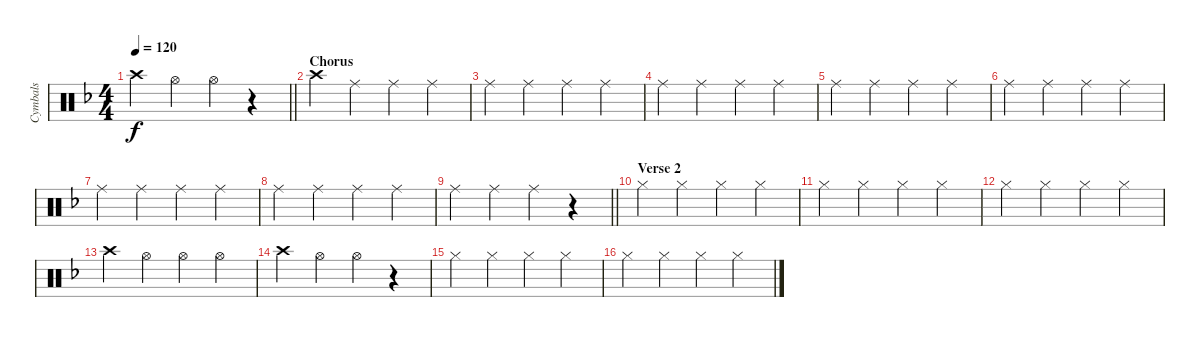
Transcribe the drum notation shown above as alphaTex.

\track ("Cymbals" "Cymbals") {instrument percussion}
\staff {score}
\articulation defaults
\ts (4 4)
\tempo 120
\clef neutral
\barLineRight lightlight
\ks f "Crash high (hit)".4{dy f} "Hi-Hat (open)".4 "Hi-Hat (open)".4
r.4 |
\section ("" "Chorus")
"Crash high (hit)".4 "Ride (middle)".4 "Ride (middle)".4 "Ride (middle)".4 |
"Ride (middle)".4 "Ride (middle)".4 "Ride (middle)".4 "Ride (middle)".4 |
"Ride (middle)".4 "Ride (middle)".4 "Ride (middle)".4 "Ride (middle)".4 |
"Ride (middle)".4 "Ride (middle)".4 "Ride (middle)".4 "Ride (middle)".4 |
"Ride (middle)".4 "Ride (middle)".4 "Ride (middle)".4 "Ride (middle)".4 |
"Ride (middle)".4 "Ride (middle)".4 "Ride (middle)".4 "Ride (middle)".4 |
"Ride (middle)".4 "Ride (middle)".4 "Ride (middle)".4 "Ride (middle)".4 |
\barLineRight lightlight "Ride (middle)".4 "Ride (middle)".4 "Ride (middle)".4
r.4 |
\section ("" "Verse 2")
"Hi-Hat (closed)".4 "Hi-Hat (closed)".4 "Hi-Hat (closed)".4 "Hi-Hat (closed)".4 |
"Hi-Hat (closed)".4 "Hi-Hat (closed)".4 "Hi-Hat (closed)".4 "Hi-Hat (closed)".4 |
"Hi-Hat (closed)".4 "Hi-Hat (closed)".4 "Hi-Hat (closed)".4 "Hi-Hat (closed)".4 |
"Crash high (hit)".4 "Hi-Hat (open)".4 "Hi-Hat (open)".4 "Hi-Hat (open)".4 |
"Crash high (hit)".4 "Hi-Hat (open)".4 "Hi-Hat (open)".4 r.4 |
"Hi-Hat (closed)".4 "Hi-Hat (closed)".4 "Hi-Hat (closed)".4 "Hi-Hat (closed)".4 |
"Hi-Hat (closed)".4 "Hi-Hat (closed)".4 "Hi-Hat (closed)".4 "Hi-Hat (closed)".4
